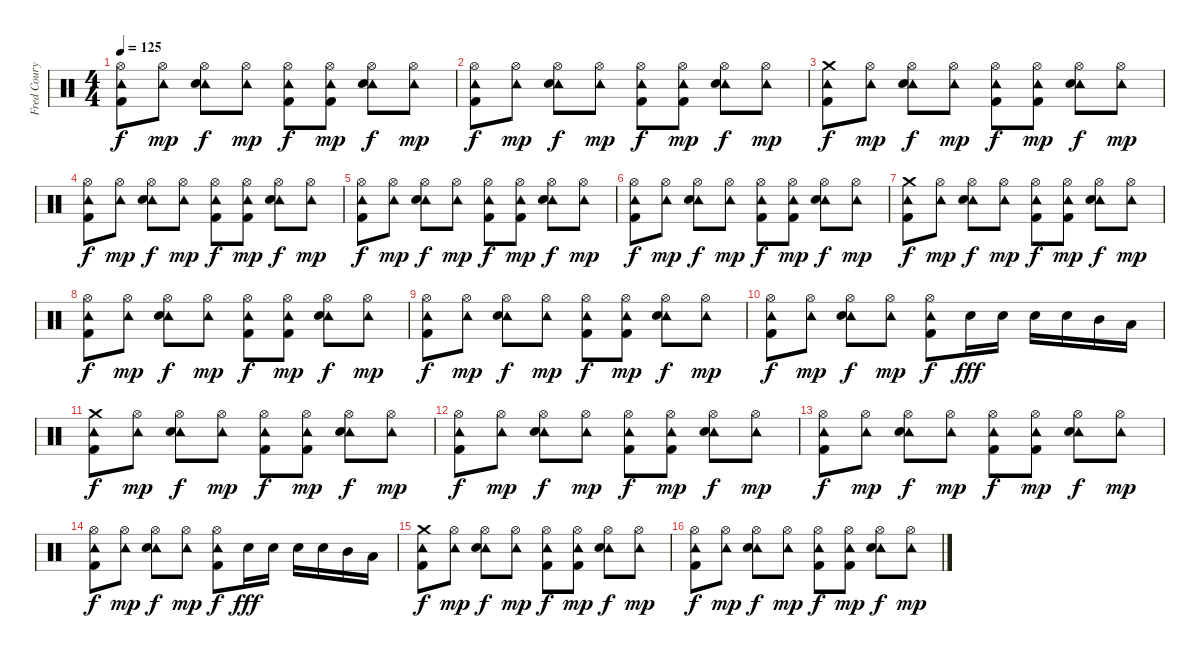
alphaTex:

\track ("Fred Coury - Drums" "Fred Coury") {instrument percussion}
\staff {score}
\articulation defaults
\ts (4 4)
\tempo 125
\clef neutral
\ks c
("Hi-Hat (open)" "Tambourine (hit)" "Kick (hit) 2").8{dy f} ("Hi-Hat (open)" "Tambourine (hit)").8{dy mp} ("Hi-Hat (open)" "Tambourine (hit)" "Snare (hit) 2").8{dy f} ("Hi-Hat (open)" "Tambourine (hit)").8{dy mp} ("Hi-Hat (open)" "Tambourine (hit)" "Kick (hit) 2").8{dy f} ("Hi-Hat (open)" "Tambourine (hit)" "Kick (hit) 2").8{dy mp} ("Hi-Hat (open)" "Tambourine (hit)" "Snare (hit) 2").8{dy f} ("Hi-Hat (open)" "Tambourine (hit)").8{dy mp} |
("Hi-Hat (open)" "Tambourine (hit)" "Kick (hit) 2").8{dy f} ("Hi-Hat (open)" "Tambourine (hit)").8{dy mp} ("Hi-Hat (open)" "Tambourine (hit)" "Snare (hit) 2").8{dy f} ("Hi-Hat (open)" "Tambourine (hit)").8{dy mp} ("Hi-Hat (open)" "Tambourine (hit)" "Kick (hit) 2").8{dy f} ("Hi-Hat (open)" "Tambourine (hit)" "Kick (hit) 2").8{dy mp} ("Hi-Hat (open)" "Tambourine (hit)" "Snare (hit) 2").8{dy f} ("Hi-Hat (open)" "Tambourine (hit)").8{dy mp} |
("Crash medium (hit)" "Tambourine (hit)" "Kick (hit) 2").8{dy f} ("Hi-Hat (open)" "Tambourine (hit)").8{dy mp} ("Hi-Hat (open)" "Tambourine (hit)" "Snare (hit) 2").8{dy f} ("Hi-Hat (open)" "Tambourine (hit)").8{dy mp} ("Hi-Hat (open)" "Tambourine (hit)" "Kick (hit) 2").8{dy f} ("Hi-Hat (open)" "Tambourine (hit)" "Kick (hit) 2").8{dy mp} ("Hi-Hat (open)" "Tambourine (hit)" "Snare (hit) 2").8{dy f} ("Hi-Hat (open)" "Tambourine (hit)").8{dy mp} |
("Hi-Hat (open)" "Tambourine (hit)" "Kick (hit) 2").8{dy f} ("Hi-Hat (open)" "Tambourine (hit)").8{dy mp} ("Hi-Hat (open)" "Tambourine (hit)" "Snare (hit) 2").8{dy f} ("Hi-Hat (open)" "Tambourine (hit)").8{dy mp} ("Hi-Hat (open)" "Tambourine (hit)" "Kick (hit) 2").8{dy f} ("Hi-Hat (open)" "Tambourine (hit)" "Kick (hit) 2").8{dy mp} ("Hi-Hat (open)" "Tambourine (hit)" "Snare (hit) 2").8{dy f} ("Hi-Hat (open)" "Tambourine (hit)").8{dy mp} |
("Hi-Hat (open)" "Tambourine (hit)" "Kick (hit) 2").8{dy f} ("Hi-Hat (open)" "Tambourine (hit)").8{dy mp} ("Hi-Hat (open)" "Tambourine (hit)" "Snare (hit) 2").8{dy f} ("Hi-Hat (open)" "Tambourine (hit)").8{dy mp} ("Hi-Hat (open)" "Tambourine (hit)" "Kick (hit) 2").8{dy f} ("Hi-Hat (open)" "Tambourine (hit)" "Kick (hit) 2").8{dy mp} ("Hi-Hat (open)" "Tambourine (hit)" "Snare (hit) 2").8{dy f} ("Hi-Hat (open)" "Tambourine (hit)").8{dy mp} |
("Hi-Hat (open)" "Tambourine (hit)" "Kick (hit) 2").8{dy f} ("Hi-Hat (open)" "Tambourine (hit)").8{dy mp} ("Hi-Hat (open)" "Tambourine (hit)" "Snare (hit) 2").8{dy f} ("Hi-Hat (open)" "Tambourine (hit)").8{dy mp} ("Hi-Hat (open)" "Tambourine (hit)" "Kick (hit) 2").8{dy f} ("Hi-Hat (open)" "Tambourine (hit)" "Kick (hit) 2").8{dy mp} ("Hi-Hat (open)" "Tambourine (hit)" "Snare (hit) 2").8{dy f} ("Hi-Hat (open)" "Tambourine (hit)").8{dy mp} |
("Crash medium (hit)" "Tambourine (hit)" "Kick (hit) 2").8{dy f} ("Hi-Hat (open)" "Tambourine (hit)").8{dy mp} ("Hi-Hat (open)" "Tambourine (hit)" "Snare (hit) 2").8{dy f} ("Hi-Hat (open)" "Tambourine (hit)").8{dy mp} ("Hi-Hat (open)" "Tambourine (hit)" "Kick (hit) 2").8{dy f} ("Hi-Hat (open)" "Tambourine (hit)" "Kick (hit) 2").8{dy mp} ("Hi-Hat (open)" "Tambourine (hit)" "Snare (hit) 2").8{dy f} ("Hi-Hat (open)" "Tambourine (hit)").8{dy mp} |
("Hi-Hat (open)" "Tambourine (hit)" "Kick (hit) 2").8{dy f} ("Hi-Hat (open)" "Tambourine (hit)").8{dy mp} ("Hi-Hat (open)" "Tambourine (hit)" "Snare (hit) 2").8{dy f} ("Hi-Hat (open)" "Tambourine (hit)").8{dy mp} ("Hi-Hat (open)" "Tambourine (hit)" "Kick (hit) 2").8{dy f} ("Hi-Hat (open)" "Tambourine (hit)" "Kick (hit) 2").8{dy mp} ("Hi-Hat (open)" "Tambourine (hit)" "Snare (hit) 2").8{dy f} ("Hi-Hat (open)" "Tambourine (hit)").8{dy mp} |
("Hi-Hat (open)" "Tambourine (hit)" "Kick (hit) 2").8{dy f} ("Hi-Hat (open)" "Tambourine (hit)").8{dy mp} ("Hi-Hat (open)" "Tambourine (hit)" "Snare (hit) 2").8{dy f} ("Hi-Hat (open)" "Tambourine (hit)").8{dy mp} ("Hi-Hat (open)" "Tambourine (hit)" "Kick (hit) 2").8{dy f} ("Hi-Hat (open)" "Tambourine (hit)" "Kick (hit) 2").8{dy mp} ("Hi-Hat (open)" "Tambourine (hit)" "Snare (hit) 2").8{dy f} ("Hi-Hat (open)" "Tambourine (hit)").8{dy mp} |
("Hi-Hat (open)" "Tambourine (hit)" "Kick (hit) 2").8{dy f} ("Hi-Hat (open)" "Tambourine (hit)").8{dy mp} ("Hi-Hat (open)" "Tambourine (hit)" "Snare (hit) 2").8{dy f} ("Hi-Hat (open)" "Tambourine (hit)").8{dy mp} ("Hi-Hat (open)" "Tambourine (hit)" "Kick (hit) 2").8{dy f} "Snare (hit) 2".16{dy fff} "Snare (hit) 2".16 "Snare (hit) 2".16 "Snare (hit) 2".16 "Mid Tom (hit)".16 "Low Tom (hit)".16 |
("Crash medium (hit)" "Tambourine (hit)" "Kick (hit) 2").8{dy f} ("Hi-Hat (open)" "Tambourine (hit)").8{dy mp} ("Hi-Hat (open)" "Tambourine (hit)" "Snare (hit) 2").8{dy f} ("Hi-Hat (open)" "Tambourine (hit)").8{dy mp} ("Hi-Hat (open)" "Tambourine (hit)" "Kick (hit) 2").8{dy f} ("Hi-Hat (open)" "Tambourine (hit)" "Kick (hit) 2").8{dy mp} ("Hi-Hat (open)" "Tambourine (hit)" "Snare (hit) 2").8{dy f} ("Hi-Hat (open)" "Tambourine (hit)").8{dy mp} |
("Hi-Hat (open)" "Tambourine (hit)" "Kick (hit) 2").8{dy f} ("Hi-Hat (open)" "Tambourine (hit)").8{dy mp} ("Hi-Hat (open)" "Tambourine (hit)" "Snare (hit) 2").8{dy f} ("Hi-Hat (open)" "Tambourine (hit)").8{dy mp} ("Hi-Hat (open)" "Tambourine (hit)" "Kick (hit) 2").8{dy f} ("Hi-Hat (open)" "Tambourine (hit)" "Kick (hit) 2").8{dy mp} ("Hi-Hat (open)" "Tambourine (hit)" "Snare (hit) 2").8{dy f} ("Hi-Hat (open)" "Tambourine (hit)").8{dy mp} |
("Hi-Hat (open)" "Tambourine (hit)" "Kick (hit) 2").8{dy f} ("Hi-Hat (open)" "Tambourine (hit)").8{dy mp} ("Hi-Hat (open)" "Tambourine (hit)" "Snare (hit) 2").8{dy f} ("Hi-Hat (open)" "Tambourine (hit)").8{dy mp} ("Hi-Hat (open)" "Tambourine (hit)" "Kick (hit) 2").8{dy f} ("Hi-Hat (open)" "Tambourine (hit)" "Kick (hit) 2").8{dy mp} ("Hi-Hat (open)" "Tambourine (hit)" "Snare (hit) 2").8{dy f} ("Hi-Hat (open)" "Tambourine (hit)").8{dy mp} |
("Hi-Hat (open)" "Tambourine (hit)" "Kick (hit) 2").8{dy f} ("Hi-Hat (open)" "Tambourine (hit)").8{dy mp} ("Hi-Hat (open)" "Tambourine (hit)" "Snare (hit) 2").8{dy f} ("Hi-Hat (open)" "Tambourine (hit)").8{dy mp} ("Hi-Hat (open)" "Tambourine (hit)" "Kick (hit) 2").8{dy f} "Snare (hit) 2".16{dy fff} "Snare (hit) 2".16 "Snare (hit) 2".16 "Snare (hit) 2".16 "Mid Tom (hit)".16 "Low Tom (hit)".16 |
("Crash medium (hit)" "Tambourine (hit)" "Kick (hit) 2").8{dy f} ("Hi-Hat (open)" "Tambourine (hit)").8{dy mp} ("Hi-Hat (open)" "Tambourine (hit)" "Snare (hit) 2").8{dy f} ("Hi-Hat (open)" "Tambourine (hit)").8{dy mp} ("Hi-Hat (open)" "Tambourine (hit)" "Kick (hit) 2").8{dy f} ("Hi-Hat (open)" "Tambourine (hit)" "Kick (hit) 2").8{dy mp} ("Hi-Hat (open)" "Tambourine (hit)" "Snare (hit) 2").8{dy f} ("Hi-Hat (open)" "Tambourine (hit)").8{dy mp} |
("Hi-Hat (open)" "Tambourine (hit)" "Kick (hit) 2").8{dy f} ("Hi-Hat (open)" "Tambourine (hit)").8{dy mp} ("Hi-Hat (open)" "Tambourine (hit)" "Snare (hit) 2").8{dy f} ("Hi-Hat (open)" "Tambourine (hit)").8{dy mp} ("Hi-Hat (open)" "Tambourine (hit)" "Kick (hit) 2").8{dy f} ("Hi-Hat (open)" "Tambourine (hit)" "Kick (hit) 2").8{dy mp} ("Hi-Hat (open)" "Tambourine (hit)" "Snare (hit) 2").8{dy f} ("Hi-Hat (open)" "Tambourine (hit)").8{dy mp}
